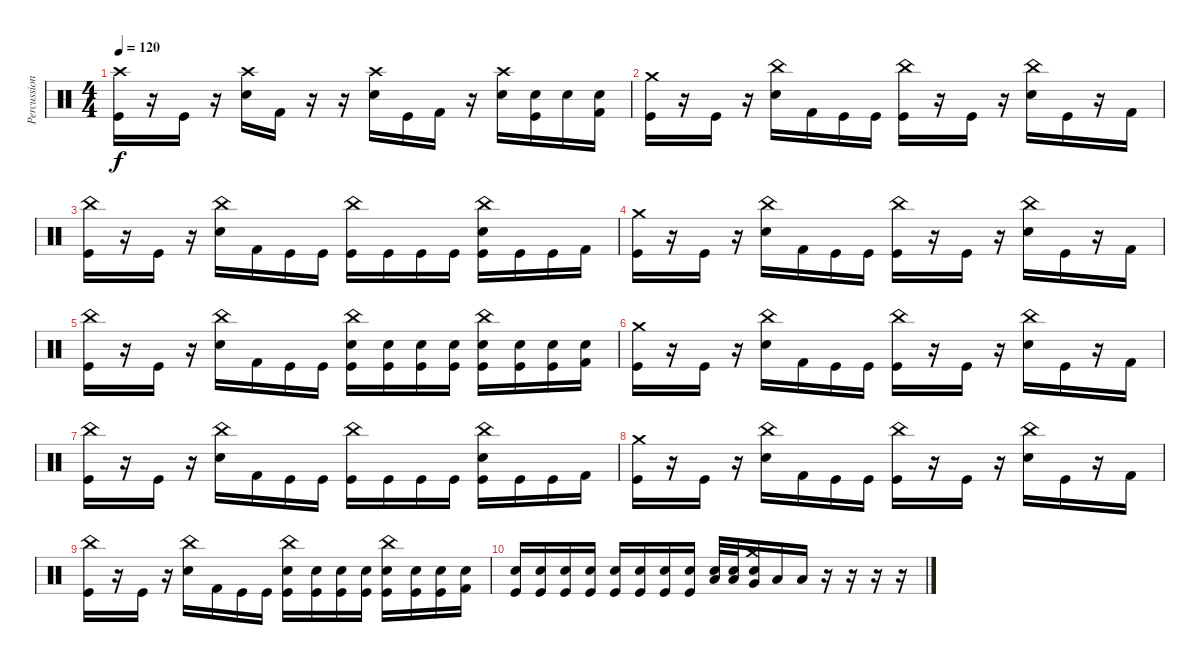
\track ("Percussions" "Percussion") {instrument percussion}
\staff {score}
\articulation defaults
\ts (4 4)
\tempo 120
\clef neutral
\ks c
("Crash high (hit)" "Kick (hit)").16{dy f} r.16 "Kick (hit)".16 r.16 ("Crash high (hit)" "Electric Snare (hit)").16 "Kick (hit) 2".16 r.16 r.16 ("Crash high (hit)" "Electric Snare (hit)").16 "Kick (hit)".16 "Kick (hit) 2".16 r.16 ("Crash high (hit)" "Electric Snare (hit)").16 ("Electric Snare (hit)" "Kick (hit)").16 "Electric Snare (hit)".16 ("Electric Snare (hit)" "Kick (hit) 2").16 |
("Crash medium (hit)" "Kick (hit)").16 r.16 "Kick (hit)".16 r.16 ("China (hit)" "Electric Snare (hit)").16 "Kick (hit) 2".16 "Kick (hit)".16 "Kick (hit)".16 ("China (hit)" "Kick (hit)").16 r.16 "Kick (hit)".16 r.16 ("China (hit)" "Electric Snare (hit)").16 "Kick (hit)".16 r.16 "Kick (hit) 2".16 |
("China (hit)" "Kick (hit)").16 r.16 "Kick (hit)".16 r.16 ("China (hit)" "Electric Snare (hit)").16 "Kick (hit) 2".16 "Kick (hit)".16 "Kick (hit)".16 ("China (hit)" "Kick (hit)").16 "Kick (hit)".16 "Kick (hit)".16 "Kick (hit)".16 ("China (hit)" "Electric Snare (hit)" "Kick (hit)").16 "Kick (hit)".16 "Kick (hit)".16 "Kick (hit) 2".16 |
("Crash medium (hit)" "Kick (hit)").16 r.16 "Kick (hit)".16 r.16 ("China (hit)" "Electric Snare (hit)").16 "Kick (hit) 2".16 "Kick (hit)".16 "Kick (hit)".16 ("China (hit)" "Kick (hit)").16 r.16 "Kick (hit)".16 r.16 ("China (hit)" "Electric Snare (hit)").16 "Kick (hit)".16 r.16 "Kick (hit) 2".16 |
("China (hit)" "Kick (hit)").16 r.16 "Kick (hit)".16 r.16 ("China (hit)" "Electric Snare (hit)").16 "Kick (hit) 2".16 "Kick (hit)".16 "Kick (hit)".16 ("China (hit)" "Electric Snare (hit)" "Kick (hit)").16 ("Electric Snare (hit)" "Kick (hit)").16 ("Electric Snare (hit)" "Kick (hit)").16 ("Electric Snare (hit)" "Kick (hit)").16 ("China (hit)" "Electric Snare (hit)" "Kick (hit)").16 ("Electric Snare (hit)" "Kick (hit)").16 ("Electric Snare (hit)" "Kick (hit)").16 ("Electric Snare (hit)" "Kick (hit) 2").16 |
("Crash medium (hit)" "Kick (hit)").16 r.16 "Kick (hit)".16 r.16 ("China (hit)" "Electric Snare (hit)").16 "Kick (hit) 2".16 "Kick (hit)".16 "Kick (hit)".16 ("China (hit)" "Kick (hit)").16 r.16 "Kick (hit)".16 r.16 ("China (hit)" "Electric Snare (hit)").16 "Kick (hit)".16 r.16 "Kick (hit) 2".16 |
("China (hit)" "Kick (hit)").16 r.16 "Kick (hit)".16 r.16 ("China (hit)" "Electric Snare (hit)").16 "Kick (hit) 2".16 "Kick (hit)".16 "Kick (hit)".16 ("China (hit)" "Kick (hit)").16 "Kick (hit)".16 "Kick (hit)".16 "Kick (hit)".16 ("China (hit)" "Electric Snare (hit)" "Kick (hit)").16 "Kick (hit)".16 "Kick (hit)".16 "Kick (hit) 2".16 |
("Crash medium (hit)" "Kick (hit)").16 r.16 "Kick (hit)".16 r.16 ("China (hit)" "Electric Snare (hit)").16 "Kick (hit) 2".16 "Kick (hit)".16 "Kick (hit)".16 ("China (hit)" "Kick (hit)").16 r.16 "Kick (hit)".16 r.16 ("China (hit)" "Electric Snare (hit)").16 "Kick (hit)".16 r.16 "Kick (hit) 2".16 |
("China (hit)" "Kick (hit)").16 r.16 "Kick (hit)".16 r.16 ("China (hit)" "Electric Snare (hit)").16 "Kick (hit) 2".16 "Kick (hit)".16 "Kick (hit)".16 ("China (hit)" "Electric Snare (hit)" "Kick (hit)").16 ("Electric Snare (hit)" "Kick (hit)").16 ("Electric Snare (hit)" "Kick (hit)").16 ("Electric Snare (hit)" "Kick (hit)").16 ("China (hit)" "Electric Snare (hit)" "Kick (hit)").16 ("Electric Snare (hit)" "Kick (hit)").16 ("Electric Snare (hit)" "Kick (hit)").16 ("Electric Snare (hit)" "Kick (hit) 2").16 |
("Electric Snare (hit)" "Kick (hit)").16 ("Electric Snare (hit)" "Kick (hit)").16 ("Electric Snare (hit)" "Kick (hit)").16 ("Electric Snare (hit)" "Kick (hit)").16 ("Electric Snare (hit)" "Kick (hit)").16 ("Electric Snare (hit)" "Kick (hit)").16 ("Electric Snare (hit)" "Kick (hit)").16 ("Electric Snare (hit)" "Kick (hit)").16 ("Electric Snare (hit)" "Low Tom (hit)").32 ("Electric Snare (hit)" "Low Tom (hit)").32 ("Crash medium (hit)" "Electric Snare (hit)" "Very Low Tom (hit)").16 "Low Floor Tom (hit)".16 "Low Floor Tom (hit)".16 r.16 r.16 r.16 r.16
